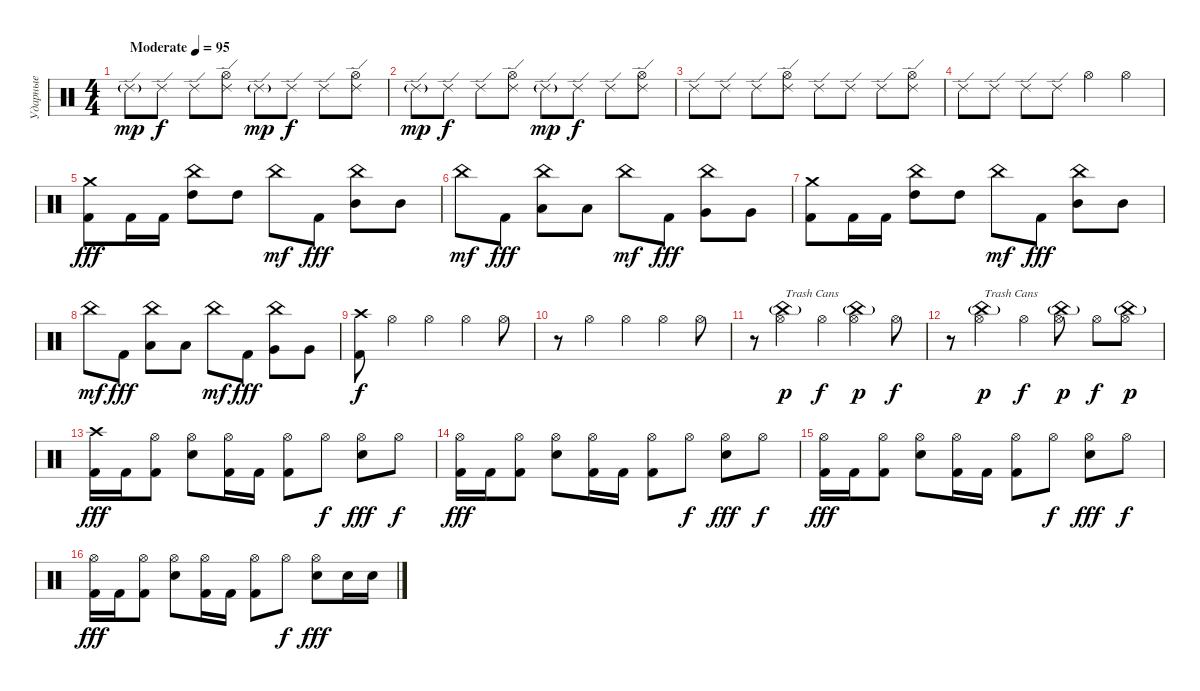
\track ("Ударные" "Ударные") {instrument percussion}
\staff {score}
\articulation defaults
\ts (4 4)
\tempo (95 "Moderate")
\clef neutral
\ks c "Ride (edge) 2"{g}.8{dy mp} "Ride (edge) 2".8{dy f} "Ride (edge) 2".8
("Ride (edge) 2" "Hi-Hat (open)").8 "Ride (edge) 2"{g}.8{dy mp} "Ride (edge) 2".8{dy f} "Ride (edge) 2".8 ("Ride (edge) 2" "Hi-Hat (open)").8 |
"Ride (edge) 2"{g}.8{dy mp} "Ride (edge) 2".8{dy f} "Ride (edge) 2".8 ("Ride (edge) 2" "Hi-Hat (open)").8 "Ride (edge) 2"{g}.8{dy mp} "Ride (edge) 2".8{dy f} "Ride (edge) 2".8 ("Ride (edge) 2" "Hi-Hat (open)").8 |
"Ride (edge) 2".8 "Ride (edge) 2".8 "Ride (edge) 2".8 ("Ride (edge) 2" "Hi-Hat (open)").8 "Ride (edge) 2".8 "Ride (edge) 2".8 "Ride (edge) 2".8 ("Ride (edge) 2" "Hi-Hat (open)").8 |
"Ride (edge) 2".8 "Ride (edge) 2".8 "Ride (edge) 2".8 "Ride (edge) 2".8 "Hi-Hat (open)".4 "Hi-Hat (open)".4 |
("Crash medium (hit)" "Kick (hit) 2").8{dy fff} "Kick (hit) 2".16 "Kick (hit) 2".16 ("China (hit)" "High Tom (hit)").8 "High Tom (hit)".8 "China (hit)".8{dy mf} "Kick (hit) 2".8{dy fff} ("China (hit)" "Mid Tom (hit)").8 "Mid Tom (hit)".8 |
"China (hit)".8{dy mf} "Kick (hit) 2".8{dy fff} ("China (hit)" "Low Tom (hit)").8 "Low Tom (hit)".8 "China (hit)".8{dy mf} "Kick (hit) 2".8{dy fff} ("China (hit)" "Very Low Tom (hit)").8 "Very Low Tom (hit)".8 |
("Crash medium (hit)" "Kick (hit) 2").8 "Kick (hit) 2".16 "Kick (hit) 2".16 ("China (hit)" "High Tom (hit)").8 "High Tom (hit)".8 "China (hit)".8{dy mf} "Kick (hit) 2".8{dy fff} ("China (hit)" "Mid Tom (hit)").8 "Mid Tom (hit)".8 |
"China (hit)".8{dy mf} "Kick (hit) 2".8{dy fff} ("China (hit)" "Low Tom (hit)").8 "Low Tom (hit)".8 "China (hit)".8{dy mf} "Kick (hit) 2".8{dy fff} ("China (hit)" "Very Low Tom (hit)").8 "Very Low Tom (hit)".8 |
("Crash high (hit)" "Kick (hit) 2").8{dy f} "Hi-Hat (open)".4 "Hi-Hat (open)".4 "Hi-Hat (open)".4 "Hi-Hat (open)".8 |
r.8 "Hi-Hat (open)".4 "Hi-Hat (open)".4 "Hi-Hat (open)".4 "Hi-Hat (open)".8 |
r.8 ("China (hit)"{g} "Hi-Hat (open)").4{txt "Trash Cans" dy p} "Hi-Hat (open)".4{dy f} ("China (hit)"{g} "Hi-Hat (open)").4{dy p} "Hi-Hat (open)".8{dy f} |
r.8 ("China (hit)"{g} "Hi-Hat (open)").4{txt "Trash Cans" dy p} "Hi-Hat (open)".4{dy f} ("China (hit)"{g} "Hi-Hat (open)").8{dy p} "Hi-Hat (open)".8{dy f} ("China (hit)"{g} "Hi-Hat (open)").8{dy p} |
("Crash high (hit)" "Kick (hit) 2").16{dy fff} "Kick (hit) 2".16 ("Hi-Hat (open)" "Kick (hit) 2").8 ("Hi-Hat (open)" "Electric Snare (hit)").8 ("Hi-Hat (open)" "Kick (hit) 2").16 "Kick (hit) 2".16 ("Hi-Hat (open)" "Kick (hit) 2").8 "Hi-Hat (open)".8{dy f} ("Hi-Hat (open)" "Electric Snare (hit)").8{dy fff} "Hi-Hat (open)".8{dy f} |
("Hi-Hat (open)" "Kick (hit) 2").16{dy fff} "Kick (hit) 2".16 ("Hi-Hat (open)" "Kick (hit) 2").8 ("Hi-Hat (open)" "Electric Snare (hit)").8 ("Hi-Hat (open)" "Kick (hit) 2").16 "Kick (hit) 2".16 ("Hi-Hat (open)" "Kick (hit) 2").8 "Hi-Hat (open)".8{dy f} ("Hi-Hat (open)" "Electric Snare (hit)").8{dy fff} "Hi-Hat (open)".8{dy f} |
("Hi-Hat (open)" "Kick (hit) 2").16{dy fff} "Kick (hit) 2".16 ("Hi-Hat (open)" "Kick (hit) 2").8 ("Hi-Hat (open)" "Electric Snare (hit)").8 ("Hi-Hat (open)" "Kick (hit) 2").16 "Kick (hit) 2".16 ("Hi-Hat (open)" "Kick (hit) 2").8 "Hi-Hat (open)".8{dy f} ("Hi-Hat (open)" "Electric Snare (hit)").8{dy fff} "Hi-Hat (open)".8{dy f} |
("Hi-Hat (open)" "Kick (hit) 2").16{dy fff} "Kick (hit) 2".16 ("Hi-Hat (open)" "Kick (hit) 2").8 ("Hi-Hat (open)" "Electric Snare (hit)").8 ("Hi-Hat (open)" "Kick (hit) 2").16 "Kick (hit) 2".16 ("Hi-Hat (open)" "Kick (hit) 2").8 "Hi-Hat (open)".8{dy f} ("Hi-Hat (open)" "Electric Snare (hit)").8{dy fff} "Electric Snare (hit)".16 "Electric Snare (hit)".16
